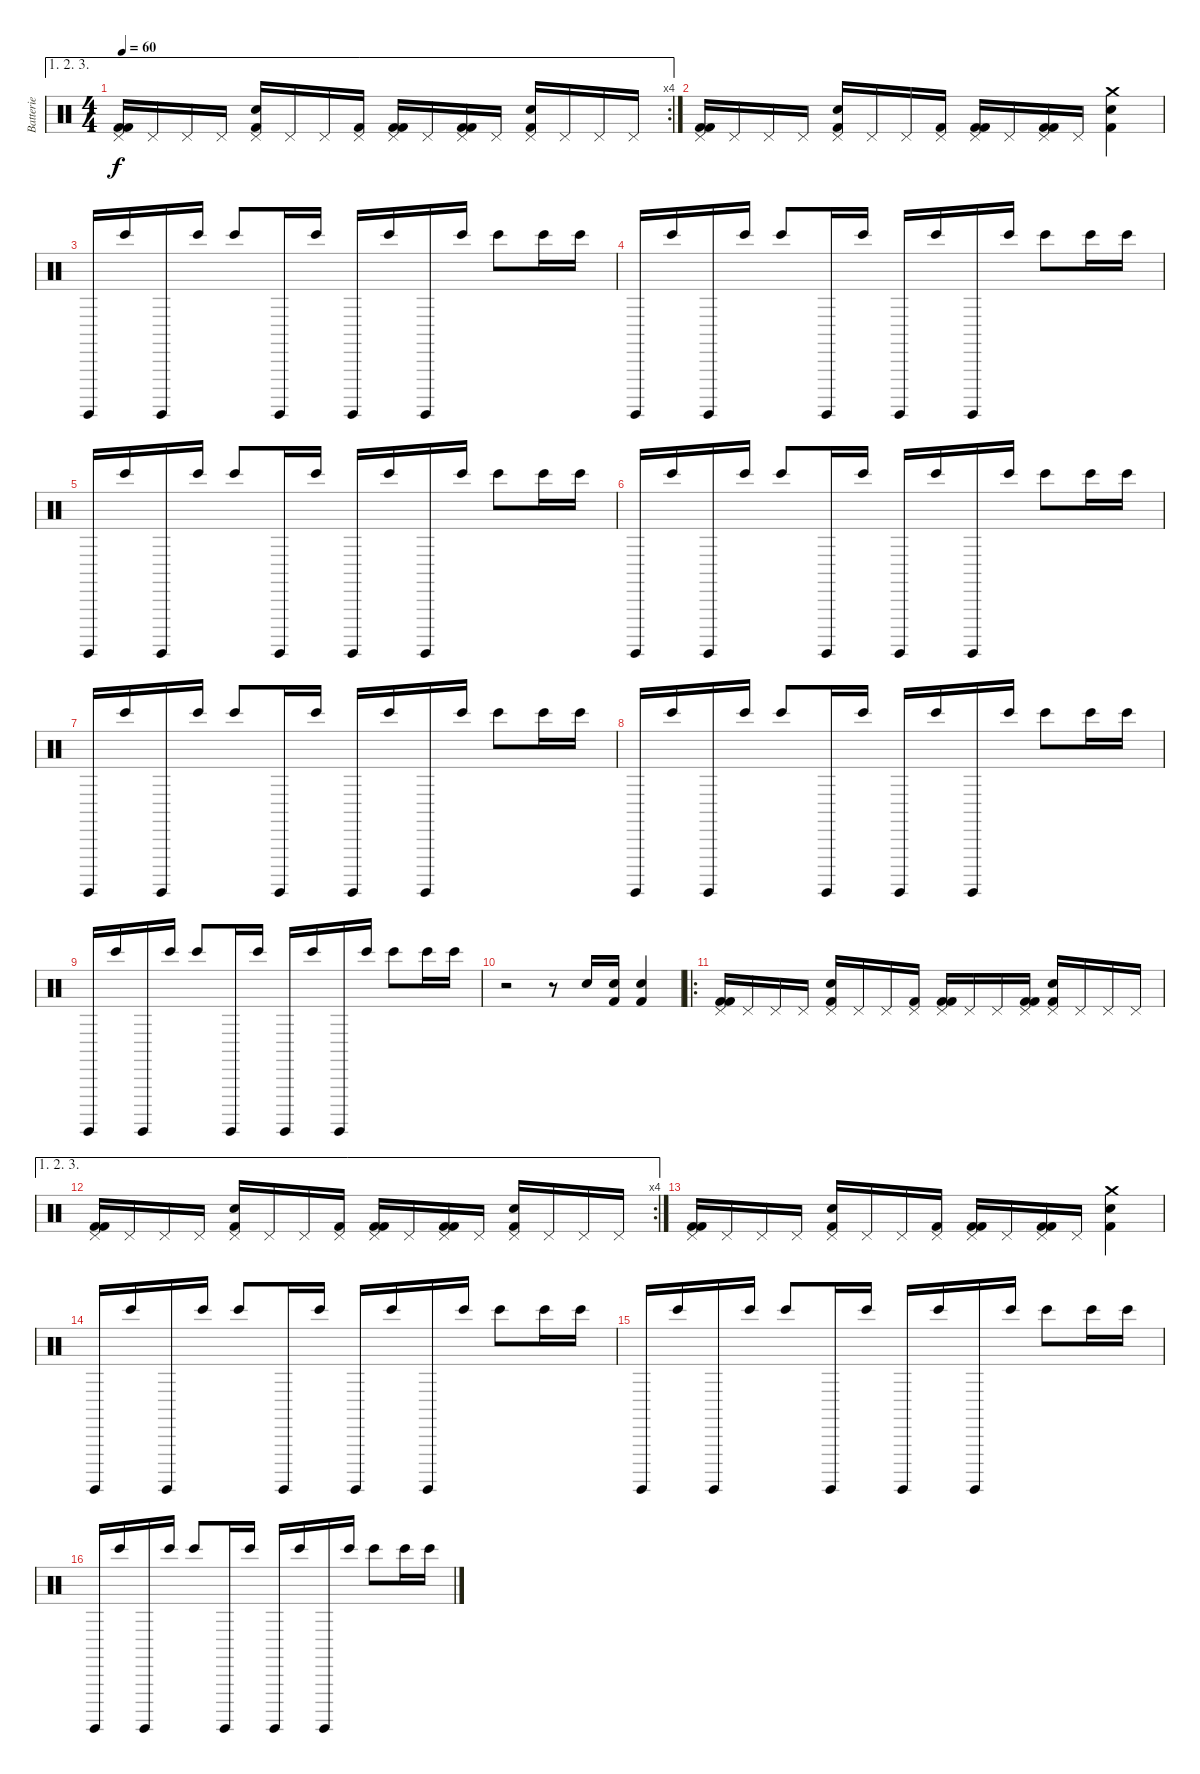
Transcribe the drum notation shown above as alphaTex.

\track ("Batterie" "Batterie") {instrument percussion}
\staff {score}
\articulation defaults
\ae (1 2 3)
\rc 4
\ts (4 4)
\tempo 60
\clef neutral
\ks c
("Pedal Hi-Hat (hit)" "Kick (hit) 2" "Kick (hit) 2").16{dy f} "Pedal Hi-Hat (hit)".16 "Pedal Hi-Hat (hit)".16 "Pedal Hi-Hat (hit)".16 ("Pedal Hi-Hat (hit)" "Electric Snare (hit)" "Kick (hit) 2").16 "Pedal Hi-Hat (hit)".16 "Pedal Hi-Hat (hit)".16 ("Pedal Hi-Hat (hit)" "Kick (hit) 2").16 ("Pedal Hi-Hat (hit)" "Kick (hit) 2" "Kick (hit) 2").16 "Pedal Hi-Hat (hit)".16 ("Pedal Hi-Hat (hit)" "Kick (hit) 2" "Kick (hit) 2").16 "Pedal Hi-Hat (hit)".16 ("Pedal Hi-Hat (hit)" "Electric Snare (hit)" "Kick (hit) 2").16 "Pedal Hi-Hat (hit)".16 "Pedal Hi-Hat (hit)".16 "Pedal Hi-Hat (hit)".16 |
("Pedal Hi-Hat (hit)" "Kick (hit) 2" "Kick (hit) 2").16 "Pedal Hi-Hat (hit)".16 "Pedal Hi-Hat (hit)".16 "Pedal Hi-Hat (hit)".16 ("Pedal Hi-Hat (hit)" "Electric Snare (hit)" "Kick (hit) 2").16 "Pedal Hi-Hat (hit)".16 "Pedal Hi-Hat (hit)".16 ("Pedal Hi-Hat (hit)" "Kick (hit) 2").16 ("Pedal Hi-Hat (hit)" "Kick (hit) 2" "Kick (hit) 2").16 "Pedal Hi-Hat (hit)".16 ("Pedal Hi-Hat (hit)" "Kick (hit) 2" "Kick (hit) 2").16 "Pedal Hi-Hat (hit)".16 ("Crash medium (hit)" "Electric Snare (hit)" "Kick (hit) 2").4 |
"Surdo (hit)".16{volume 12} "Bongo High (hit)".16 "Surdo (hit)".16 "Bongo High (hit)".16 "Bongo High (hit)".8 "Surdo (hit)".16 "Bongo High (hit)".16 "Surdo (hit)".16 "Bongo High (hit)".16 "Surdo (hit)".16 "Bongo High (hit)".16 "Bongo High (hit)".8 "Bongo High (hit)".16 "Bongo High (hit)".16 |
"Surdo (hit)".16 "Bongo High (hit)".16 "Surdo (hit)".16 "Bongo High (hit)".16 "Bongo High (hit)".8 "Surdo (hit)".16 "Bongo High (hit)".16 "Surdo (hit)".16 "Bongo High (hit)".16 "Surdo (hit)".16 "Bongo High (hit)".16 "Bongo High (hit)".8 "Bongo High (hit)".16 "Bongo High (hit)".16 |
"Surdo (hit)".16{volume 12} "Bongo High (hit)".16 "Surdo (hit)".16 "Bongo High (hit)".16 "Bongo High (hit)".8 "Surdo (hit)".16 "Bongo High (hit)".16 "Surdo (hit)".16 "Bongo High (hit)".16 "Surdo (hit)".16 "Bongo High (hit)".16 "Bongo High (hit)".8 "Bongo High (hit)".16 "Bongo High (hit)".16 |
"Surdo (hit)".16 "Bongo High (hit)".16 "Surdo (hit)".16 "Bongo High (hit)".16 "Bongo High (hit)".8 "Surdo (hit)".16 "Bongo High (hit)".16 "Surdo (hit)".16 "Bongo High (hit)".16 "Surdo (hit)".16 "Bongo High (hit)".16 "Bongo High (hit)".8 "Bongo High (hit)".16 "Bongo High (hit)".16 |
"Surdo (hit)".16{volume 12} "Bongo High (hit)".16 "Surdo (hit)".16 "Bongo High (hit)".16 "Bongo High (hit)".8 "Surdo (hit)".16 "Bongo High (hit)".16 "Surdo (hit)".16 "Bongo High (hit)".16 "Surdo (hit)".16 "Bongo High (hit)".16 "Bongo High (hit)".8 "Bongo High (hit)".16 "Bongo High (hit)".16 |
"Surdo (hit)".16 "Bongo High (hit)".16 "Surdo (hit)".16 "Bongo High (hit)".16 "Bongo High (hit)".8 "Surdo (hit)".16 "Bongo High (hit)".16 "Surdo (hit)".16 "Bongo High (hit)".16 "Surdo (hit)".16 "Bongo High (hit)".16 "Bongo High (hit)".8 "Bongo High (hit)".16 "Bongo High (hit)".16 |
"Surdo (hit)".16 "Bongo High (hit)".16 "Surdo (hit)".16 "Bongo High (hit)".16 "Bongo High (hit)".8 "Surdo (hit)".16 "Bongo High (hit)".16 "Surdo (hit)".16 "Bongo High (hit)".16 "Surdo (hit)".16 "Bongo High (hit)".16 "Bongo High (hit)".8 "Bongo High (hit)".16 "Bongo High (hit)".16 |
r.2 r.8 "Snare (hit) 2".16{volume 16} ("Electric Snare (hit)" "Kick (hit) 2").16 ("Electric Snare (hit)" "Kick (hit) 2").4 |
\ro
("Pedal Hi-Hat (hit)" "Kick (hit) 2" "Kick (hit) 2").16 "Pedal Hi-Hat (hit)".16 "Pedal Hi-Hat (hit)".16 "Pedal Hi-Hat (hit)".16 ("Pedal Hi-Hat (hit)" "Electric Snare (hit)" "Kick (hit) 2").16 "Pedal Hi-Hat (hit)".16 "Pedal Hi-Hat (hit)".16 ("Pedal Hi-Hat (hit)" "Kick (hit) 2").16 ("Pedal Hi-Hat (hit)" "Kick (hit) 2" "Kick (hit) 2").16 "Pedal Hi-Hat (hit)".16 "Pedal Hi-Hat (hit)".16 ("Pedal Hi-Hat (hit)" "Kick (hit) 2" "Kick (hit) 2").16 ("Pedal Hi-Hat (hit)" "Electric Snare (hit)" "Kick (hit) 2").16 "Pedal Hi-Hat (hit)".16 "Pedal Hi-Hat (hit)".16 "Pedal Hi-Hat (hit)".16 |
\ae (1 2 3)
\rc 4
("Pedal Hi-Hat (hit)" "Kick (hit) 2" "Kick (hit) 2").16 "Pedal Hi-Hat (hit)".16 "Pedal Hi-Hat (hit)".16 "Pedal Hi-Hat (hit)".16 ("Pedal Hi-Hat (hit)" "Electric Snare (hit)" "Kick (hit) 2").16 "Pedal Hi-Hat (hit)".16 "Pedal Hi-Hat (hit)".16 ("Pedal Hi-Hat (hit)" "Kick (hit) 2").16 ("Pedal Hi-Hat (hit)" "Kick (hit) 2" "Kick (hit) 2").16 "Pedal Hi-Hat (hit)".16 ("Pedal Hi-Hat (hit)" "Kick (hit) 2" "Kick (hit) 2").16 "Pedal Hi-Hat (hit)".16 ("Pedal Hi-Hat (hit)" "Electric Snare (hit)" "Kick (hit) 2").16 "Pedal Hi-Hat (hit)".16 "Pedal Hi-Hat (hit)".16 "Pedal Hi-Hat (hit)".16 |
("Pedal Hi-Hat (hit)" "Kick (hit) 2" "Kick (hit) 2").16 "Pedal Hi-Hat (hit)".16 "Pedal Hi-Hat (hit)".16 "Pedal Hi-Hat (hit)".16 ("Pedal Hi-Hat (hit)" "Electric Snare (hit)" "Kick (hit) 2").16 "Pedal Hi-Hat (hit)".16 "Pedal Hi-Hat (hit)".16 ("Pedal Hi-Hat (hit)" "Kick (hit) 2").16 ("Pedal Hi-Hat (hit)" "Kick (hit) 2" "Kick (hit) 2").16 "Pedal Hi-Hat (hit)".16 ("Pedal Hi-Hat (hit)" "Kick (hit) 2" "Kick (hit) 2").16 "Pedal Hi-Hat (hit)".16 ("Crash medium (hit)" "Electric Snare (hit)" "Kick (hit) 2").4 |
"Surdo (hit)".16{volume 12} "Bongo High (hit)".16 "Surdo (hit)".16 "Bongo High (hit)".16 "Bongo High (hit)".8 "Surdo (hit)".16 "Bongo High (hit)".16 "Surdo (hit)".16 "Bongo High (hit)".16 "Surdo (hit)".16 "Bongo High (hit)".16 "Bongo High (hit)".8 "Bongo High (hit)".16 "Bongo High (hit)".16 |
"Surdo (hit)".16 "Bongo High (hit)".16 "Surdo (hit)".16 "Bongo High (hit)".16 "Bongo High (hit)".8 "Surdo (hit)".16 "Bongo High (hit)".16 "Surdo (hit)".16 "Bongo High (hit)".16 "Surdo (hit)".16 "Bongo High (hit)".16 "Bongo High (hit)".8 "Bongo High (hit)".16 "Bongo High (hit)".16 |
"Surdo (hit)".16{volume 12} "Bongo High (hit)".16 "Surdo (hit)".16 "Bongo High (hit)".16 "Bongo High (hit)".8 "Surdo (hit)".16 "Bongo High (hit)".16 "Surdo (hit)".16 "Bongo High (hit)".16 "Surdo (hit)".16 "Bongo High (hit)".16 "Bongo High (hit)".8 "Bongo High (hit)".16 "Bongo High (hit)".16
